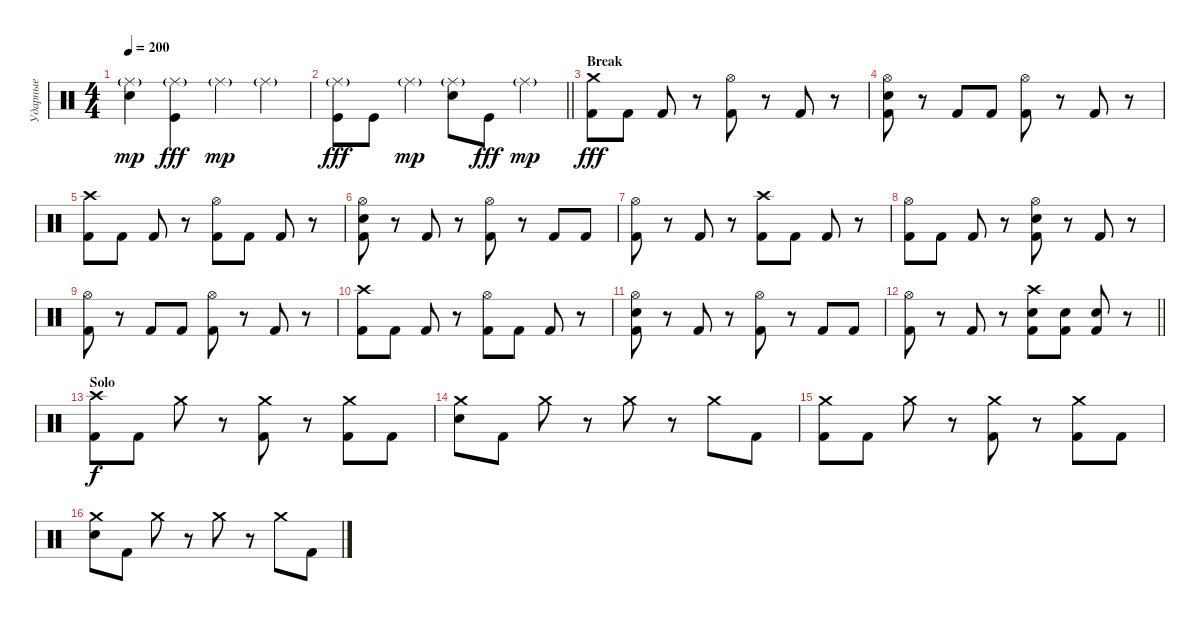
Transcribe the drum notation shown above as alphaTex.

\track ("Ударные" "Ударные") {instrument percussion}
\staff {score}
\articulation defaults
\ts (4 4)
\tempo 200
\clef neutral
\ks c
("Ride (middle)"{g} "Electric Snare (hit)").4{dy mp} ("Ride (middle)"{g} "Kick (hit)").4{dy fff} "Ride (middle)"{g}.4{dy mp} "Ride (middle)"{g}.4 |
\barLineRight lightlight
("Ride (middle)"{g} "Kick (hit)").8{dy fff} "Kick (hit)".8 "Ride (middle)"{g}.4{dy mp} ("Ride (middle)"{g} "Electric Snare (hit)").8 "Kick (hit)".8{dy fff} "Ride (middle)"{g}.4{dy mp} |
\section ("" "Break")
("Crash medium (hit)" "Kick (hit) 2").8{dy fff} "Kick (hit) 2".8 "Kick (hit) 2".8 r.8 ("Hi-Hat (open)" "Kick (hit) 2").8 r.8 "Kick (hit) 2".8 r.8 |
("Hi-Hat (open)" "Electric Snare (hit)" "Kick (hit) 2").8 r.8 "Kick (hit) 2".8 "Kick (hit) 2".8 ("Hi-Hat (open)" "Kick (hit) 2").8 r.8 "Kick (hit) 2".8 r.8 |
("Crash high (hit)" "Kick (hit) 2").8 "Kick (hit) 2".8 "Kick (hit) 2".8 r.8 ("Hi-Hat (open)" "Kick (hit) 2").8 "Kick (hit) 2".8 "Kick (hit) 2".8 r.8 |
("Hi-Hat (open)" "Electric Snare (hit)" "Kick (hit) 2").8 r.8 "Kick (hit) 2".8 r.8 ("Hi-Hat (open)" "Kick (hit) 2").8 r.8 "Kick (hit) 2".8 "Kick (hit) 2".8 |
("Hi-Hat (open)" "Kick (hit) 2").8 r.8 "Kick (hit) 2".8 r.8 ("Crash high (hit)" "Kick (hit) 2").8 "Kick (hit) 2".8 "Kick (hit) 2".8 r.8 |
("Hi-Hat (open)" "Kick (hit) 2").8 "Kick (hit) 2".8 "Kick (hit) 2".8 r.8 ("Hi-Hat (open)" "Electric Snare (hit)" "Kick (hit) 2").8 r.8 "Kick (hit) 2".8 r.8 |
("Hi-Hat (open)" "Kick (hit) 2").8 r.8 "Kick (hit) 2".8 "Kick (hit) 2".8 ("Hi-Hat (open)" "Kick (hit) 2").8 r.8 "Kick (hit) 2".8 r.8 |
("Crash high (hit)" "Kick (hit) 2").8 "Kick (hit) 2".8 "Kick (hit) 2".8 r.8 ("Hi-Hat (open)" "Kick (hit) 2").8 "Kick (hit) 2".8 "Kick (hit) 2".8 r.8 |
("Hi-Hat (open)" "Electric Snare (hit)" "Kick (hit) 2").8 r.8 "Kick (hit) 2".8 r.8 ("Hi-Hat (open)" "Kick (hit) 2").8 r.8 "Kick (hit) 2".8 "Kick (hit) 2".8 |
\barLineRight lightlight
("Hi-Hat (open)" "Kick (hit) 2").8 r.8 "Kick (hit) 2".8 r.8 ("Crash high (hit)" "Electric Snare (hit)" "Kick (hit) 2").8 ("Electric Snare (hit)" "Kick (hit) 2").8 ("Electric Snare (hit)" "Kick (hit) 2").8 r.8 |
\section ("" "Solo")
("Crash high (hit)" "Kick (hit) 2").8{dy f} "Kick (hit) 2".8 "Crash medium (hit)".8 r.8 ("Crash medium (hit)" "Kick (hit) 2").8 r.8 ("Crash medium (hit)" "Kick (hit) 2").8 "Kick (hit) 2".8 |
("Crash medium (hit)" "Electric Snare (hit)").8 "Kick (hit) 2".8 "Crash medium (hit)".8 r.8 "Crash medium (hit)".8 r.8 "Crash medium (hit)".8 "Kick (hit) 2".8 |
("Crash medium (hit)" "Kick (hit) 2").8 "Kick (hit) 2".8 "Crash medium (hit)".8 r.8 ("Crash medium (hit)" "Kick (hit) 2").8 r.8 ("Crash medium (hit)" "Kick (hit) 2").8 "Kick (hit) 2".8 |
("Crash medium (hit)" "Electric Snare (hit)").8 "Kick (hit) 2".8 "Crash medium (hit)".8 r.8 "Crash medium (hit)".8 r.8 "Crash medium (hit)".8 "Kick (hit) 2".8
